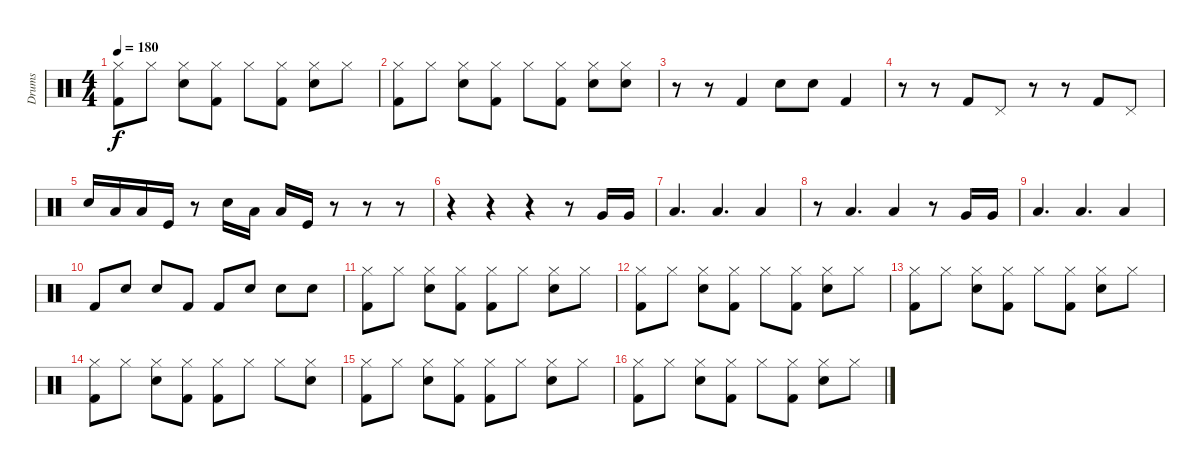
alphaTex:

\track ("Drums" "Drums") {instrument percussion}
\staff {score}
\articulation defaults
\ts (4 4)
\tempo 180
\clef neutral
\ks c
("Hi-Hat (closed)" "Kick (hit) 2").8{dy f} "Hi-Hat (closed)".8 ("Hi-Hat (closed)" "Snare (hit) 2").8 ("Hi-Hat (closed)" "Kick (hit) 2").8 "Hi-Hat (closed)".8 ("Hi-Hat (closed)" "Kick (hit) 2").8 ("Hi-Hat (closed)" "Snare (hit) 2").8 "Hi-Hat (closed)".8 |
("Hi-Hat (closed)" "Kick (hit) 2").8 "Hi-Hat (closed)".8 ("Hi-Hat (closed)" "Snare (hit) 2").8 ("Hi-Hat (closed)" "Kick (hit) 2").8 "Hi-Hat (closed)".8 ("Hi-Hat (closed)" "Kick (hit) 2").8 ("Hi-Hat (closed)" "Snare (hit) 2").8 ("Hi-Hat (closed)" "Snare (hit) 2").8 |
r.8 r.8 "Kick (hit) 2".4 "Hand Clap (hit)".8 "Hand Clap (hit)".8 "Kick (hit) 2".4 |
r.8 r.8 "Kick (hit) 2".8 "Pedal Hi-Hat (hit)".8 r.8 r.8 "Kick (hit) 2".8 "Pedal Hi-Hat (hit)".8 |
"Snare (hit) 2".16 "Low Floor Tom (hit)".16 "Low Floor Tom (hit)".16 "Kick (hit)".16 r.8 "Snare (hit) 2".16 "Low Floor Tom (hit)".16 "Low Floor Tom (hit)".16 "Kick (hit)".16 r.8 r.8 r.8 |
r.4 r.4 r.4 r.8 "Very Low Tom (hit)".16 "Very Low Tom (hit)".16 |
"Low Tom (hit)".4{d} "Low Tom (hit)".4{d} "Low Tom (hit)".4 |
r.8 "Low Tom (hit)".4{d} "Low Floor Tom (hit)".4 r.8 "Very Low Tom (hit)".16 "Very Low Tom (hit)".16 |
"Low Tom (hit)".4{d} "Low Tom (hit)".4{d} "Low Tom (hit)".4 |
"Kick (hit) 2".8 "Snare (hit) 2".8 "Snare (hit) 2".8 "Kick (hit) 2".8 "Kick (hit) 2".8 "Snare (hit) 2".8 "Snare (hit) 2".8 "Snare (hit) 2".8 |
("Hi-Hat (closed)" "Kick (hit) 2").8 "Hi-Hat (closed)".8 ("Hi-Hat (closed)" "Snare (hit) 2").8 ("Hi-Hat (closed)" "Kick (hit) 2").8 ("Hi-Hat (closed)" "Kick (hit) 2").8 "Hi-Hat (closed)".8 ("Hi-Hat (closed)" "Snare (hit) 2").8 "Hi-Hat (closed)".8 |
("Hi-Hat (closed)" "Kick (hit) 2").8 "Hi-Hat (closed)".8 ("Hi-Hat (closed)" "Snare (hit) 2").8 ("Hi-Hat (closed)" "Kick (hit) 2").8 "Hi-Hat (closed)".8 ("Hi-Hat (closed)" "Kick (hit) 2").8 ("Hi-Hat (closed)" "Snare (hit) 2").8 "Hi-Hat (closed)".8 |
("Hi-Hat (closed)" "Kick (hit) 2").8 "Hi-Hat (closed)".8 ("Hi-Hat (closed)" "Snare (hit) 2").8 ("Hi-Hat (closed)" "Kick (hit) 2").8 "Hi-Hat (closed)".8 ("Hi-Hat (closed)" "Kick (hit) 2").8 ("Hi-Hat (closed)" "Snare (hit) 2").8 "Hi-Hat (closed)".8 |
("Hi-Hat (closed)" "Kick (hit) 2").8 "Hi-Hat (closed)".8 ("Hi-Hat (closed)" "Snare (hit) 2").8 ("Hi-Hat (closed)" "Kick (hit) 2").8 ("Hi-Hat (closed)" "Kick (hit) 2").8 "Hi-Hat (closed)".8 "Hi-Hat (closed)".8 ("Hi-Hat (closed)" "Snare (hit) 2").8 |
("Hi-Hat (closed)" "Kick (hit) 2").8 "Hi-Hat (closed)".8 ("Hi-Hat (closed)" "Snare (hit) 2").8 ("Hi-Hat (closed)" "Kick (hit) 2").8 ("Hi-Hat (closed)" "Kick (hit) 2").8 "Hi-Hat (closed)".8 ("Hi-Hat (closed)" "Snare (hit) 2").8 "Hi-Hat (closed)".8 |
("Hi-Hat (closed)" "Kick (hit) 2").8 "Hi-Hat (closed)".8 ("Hi-Hat (closed)" "Snare (hit) 2").8 ("Hi-Hat (closed)" "Kick (hit) 2").8 "Hi-Hat (closed)".8 ("Hi-Hat (closed)" "Kick (hit) 2").8 ("Hi-Hat (closed)" "Snare (hit) 2").8 "Hi-Hat (closed)".8
